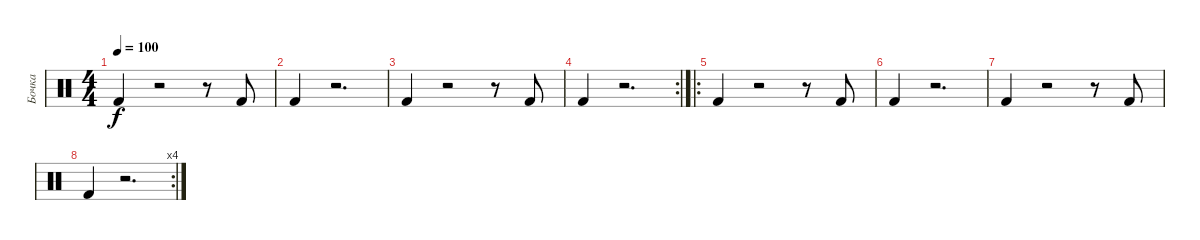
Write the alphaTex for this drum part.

\track ("Бочка" "Бочка") {instrument percussion}
\staff {score}
\articulation defaults
\ts (4 4)
\tempo 100
\clef neutral
\ks c "Kick (hit) 2".4{dy f}
r.2 r.8 "Kick (hit) 2".8 |
"Kick (hit) 2".4 r.2{d} |
"Kick (hit) 2".4 r.2 r.8 "Kick (hit) 2".8 |
\rc 2 "Kick (hit) 2".4
r.2{d} |
\ro "Kick (hit) 2".4
r.2 r.8 "Kick (hit) 2".8 |
"Kick (hit) 2".4 r.2{d} |
"Kick (hit) 2".4 r.2 r.8 "Kick (hit) 2".8 |
\rc 4 "Kick (hit) 2".4
r.2{d}
